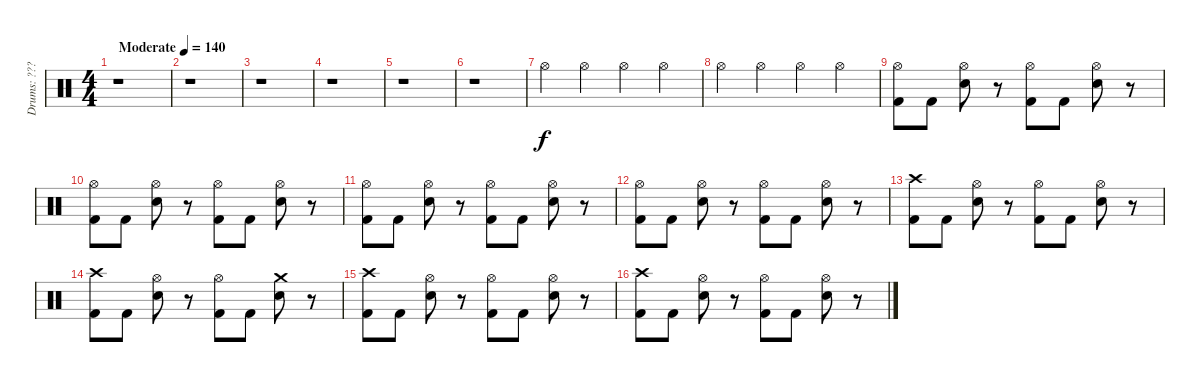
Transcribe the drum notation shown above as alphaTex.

\track ("Drums: ???" "Drums: ???") {instrument percussion}
\staff {score}
\articulation defaults
\ts (4 4)
\tempo (140 "Moderate")
\clef neutral
\ks c
r.1{dy f} |
r.1 |
r.1 |
r.1 |
r.1 |
r.1 |
"Hi-Hat (open)".4 "Hi-Hat (open)".4 "Hi-Hat (open)".4 "Hi-Hat (open)".4 |
"Hi-Hat (open)".4 "Hi-Hat (open)".4 "Hi-Hat (open)".4 "Hi-Hat (open)".4 |
("Hi-Hat (open)" "Kick (hit) 2").8 "Kick (hit) 2".8 ("Hi-Hat (open)" "Snare (hit) 2").8 r.8 ("Hi-Hat (open)" "Kick (hit) 2").8 "Kick (hit) 2".8 ("Hi-Hat (open)" "Snare (hit) 2").8 r.8 |
("Hi-Hat (open)" "Kick (hit) 2").8 "Kick (hit) 2".8 ("Hi-Hat (open)" "Snare (hit) 2").8 r.8 ("Hi-Hat (open)" "Kick (hit) 2").8 "Kick (hit) 2".8 ("Hi-Hat (open)" "Snare (hit) 2").8 r.8 |
("Hi-Hat (open)" "Kick (hit) 2").8 "Kick (hit) 2".8 ("Hi-Hat (open)" "Snare (hit) 2").8 r.8 ("Hi-Hat (open)" "Kick (hit) 2").8 "Kick (hit) 2".8 ("Hi-Hat (open)" "Snare (hit) 2").8 r.8 |
("Hi-Hat (open)" "Kick (hit) 2").8 "Kick (hit) 2".8 ("Hi-Hat (open)" "Snare (hit) 2").8 r.8 ("Hi-Hat (open)" "Kick (hit) 2").8 "Kick (hit) 2".8 ("Hi-Hat (open)" "Snare (hit) 2").8 r.8 |
("Crash high (hit)" "Kick (hit) 2").8 "Kick (hit) 2".8 ("Hi-Hat (open)" "Snare (hit) 2").8 r.8 ("Hi-Hat (open)" "Kick (hit) 2").8 "Kick (hit) 2".8 ("Hi-Hat (open)" "Snare (hit) 2").8 r.8 |
("Crash high (hit)" "Kick (hit) 2").8 "Kick (hit) 2".8 ("Hi-Hat (open)" "Snare (hit) 2").8 r.8 ("Hi-Hat (open)" "Kick (hit) 2").8 "Kick (hit) 2".8 ("Crash medium (hit)" "Snare (hit) 2").8 r.8 |
("Crash high (hit)" "Kick (hit) 2").8 "Kick (hit) 2".8 ("Hi-Hat (open)" "Snare (hit) 2").8 r.8 ("Hi-Hat (open)" "Kick (hit) 2").8 "Kick (hit) 2".8 ("Hi-Hat (open)" "Snare (hit) 2").8 r.8 |
("Crash high (hit)" "Kick (hit) 2").8 "Kick (hit) 2".8 ("Hi-Hat (open)" "Snare (hit) 2").8 r.8 ("Hi-Hat (open)" "Kick (hit) 2").8 "Kick (hit) 2".8 ("Hi-Hat (open)" "Snare (hit) 2").8 r.8
